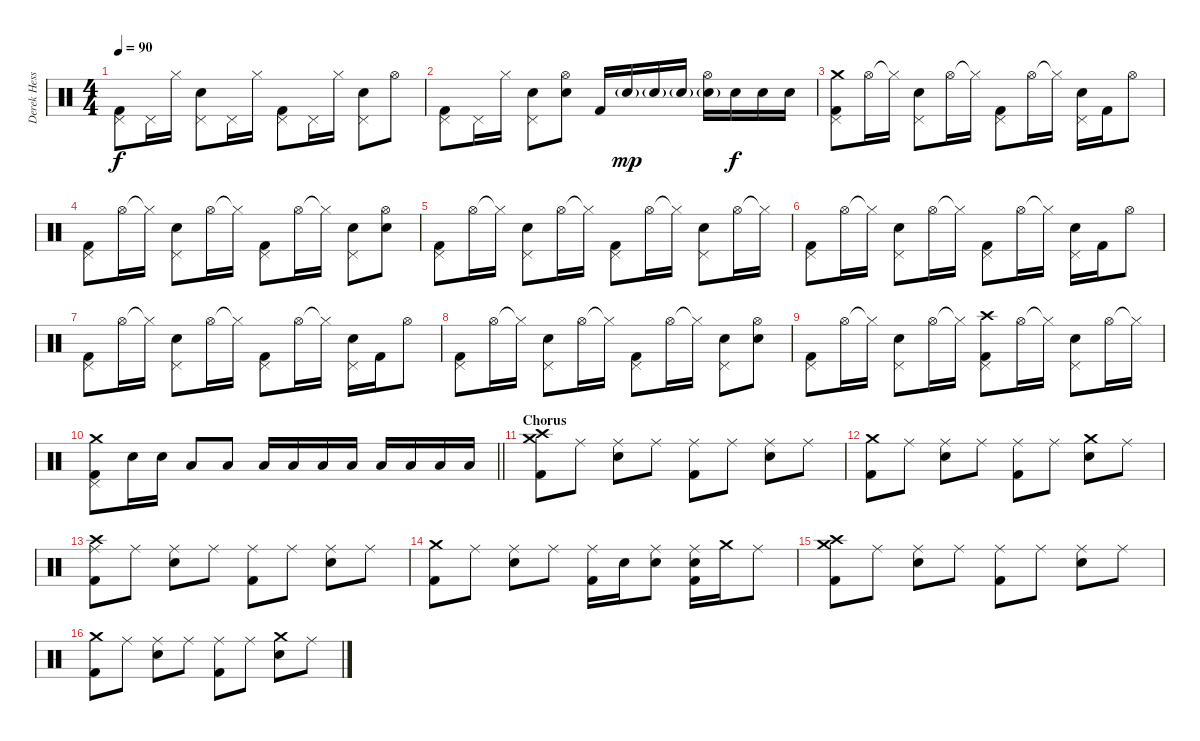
\track ("Derek Hess (Drums and Percussion)" "Derek Hess") {instrument percussion}
\staff {score}
\articulation defaults
\ts (4 4)
\tempo 90
\clef neutral
\ks c
("Pedal Hi-Hat (hit)" "Kick (hit) 2").8{dy f} "Pedal Hi-Hat (hit)".16 "Hi-Hat (closed)".16 ("Snare (hit) 2" "Pedal Hi-Hat (hit)").8 "Pedal Hi-Hat (hit)".16 "Hi-Hat (closed)".16 ("Pedal Hi-Hat (hit)" "Kick (hit) 2").8 "Pedal Hi-Hat (hit)".16 "Hi-Hat (closed)".16 ("Snare (hit) 2" "Pedal Hi-Hat (hit)").8 "Hi-Hat (open)".8 |
("Pedal Hi-Hat (hit)" "Kick (hit) 2").8 "Pedal Hi-Hat (hit)".16 "Hi-Hat (closed)".16 ("Snare (hit) 2" "Pedal Hi-Hat (hit)").8 ("Snare (hit) 2" "Hi-Hat (open)").8 "Kick (hit) 2".16 "Snare (hit) 2"{g}.16{dy mp} "Snare (hit) 2"{g}.16 "Snare (hit) 2"{g}.16 ("Snare (hit) 2"{g} "Hi-Hat (open)").16 "Snare (hit) 2".16{dy f} "Snare (hit) 2".16 "Snare (hit) 2".16 |
("Crash medium (hit)" "Pedal Hi-Hat (hit)" "Kick (hit) 2").8 "Hi-Hat (open)".16 "Hi-Hat (closed)"{t}.16 ("Snare (hit) 2" "Pedal Hi-Hat (hit)").8 "Hi-Hat (open)".16 "Hi-Hat (closed)"{t}.16 ("Pedal Hi-Hat (hit)" "Kick (hit) 2").8 "Hi-Hat (open)".16 "Hi-Hat (closed)"{t}.16 ("Snare (hit) 2" "Pedal Hi-Hat (hit)").16 "Kick (hit) 2".16 "Hi-Hat (open)".8 |
("Pedal Hi-Hat (hit)" "Kick (hit) 2").8 "Hi-Hat (open)".16 "Hi-Hat (closed)"{t}.16 ("Snare (hit) 2" "Pedal Hi-Hat (hit)").8 "Hi-Hat (open)".16 "Hi-Hat (closed)"{t}.16 ("Pedal Hi-Hat (hit)" "Kick (hit) 2").8 "Hi-Hat (open)".16 "Hi-Hat (closed)"{t}.16 ("Snare (hit) 2" "Pedal Hi-Hat (hit)").8 ("Snare (hit) 2" "Hi-Hat (open)").8 |
("Pedal Hi-Hat (hit)" "Kick (hit) 2").8 "Hi-Hat (open)".16 "Hi-Hat (closed)"{t}.16 ("Snare (hit) 2" "Pedal Hi-Hat (hit)").8 "Hi-Hat (open)".16 "Hi-Hat (closed)"{t}.16 ("Pedal Hi-Hat (hit)" "Kick (hit) 2").8 "Hi-Hat (open)".16 "Hi-Hat (closed)"{t}.16 ("Snare (hit) 2" "Pedal Hi-Hat (hit)").8 "Hi-Hat (open)".16 "Hi-Hat (closed)"{t}.16 |
("Pedal Hi-Hat (hit)" "Kick (hit) 2").8 "Hi-Hat (open)".16 "Hi-Hat (closed)"{t}.16 ("Snare (hit) 2" "Pedal Hi-Hat (hit)").8 "Hi-Hat (open)".16 "Hi-Hat (closed)"{t}.16 ("Pedal Hi-Hat (hit)" "Kick (hit) 2").8 "Hi-Hat (open)".16 "Hi-Hat (closed)"{t}.16 ("Snare (hit) 2" "Pedal Hi-Hat (hit)").16 "Kick (hit) 2".16 "Hi-Hat (open)".8 |
("Pedal Hi-Hat (hit)" "Kick (hit) 2").8 "Hi-Hat (open)".16 "Hi-Hat (closed)"{t}.16 ("Snare (hit) 2" "Pedal Hi-Hat (hit)").8 "Hi-Hat (open)".16 "Hi-Hat (closed)"{t}.16 ("Pedal Hi-Hat (hit)" "Kick (hit) 2").8 "Hi-Hat (open)".16 "Hi-Hat (closed)"{t}.16 ("Snare (hit) 2" "Pedal Hi-Hat (hit)").16 "Kick (hit) 2".16 "Hi-Hat (open)".8 |
("Pedal Hi-Hat (hit)" "Kick (hit) 2").8 "Hi-Hat (open)".16 "Hi-Hat (closed)"{t}.16 ("Snare (hit) 2" "Pedal Hi-Hat (hit)").8 "Hi-Hat (open)".16 "Hi-Hat (closed)"{t}.16 ("Pedal Hi-Hat (hit)" "Kick (hit) 2").8 "Hi-Hat (open)".16 "Hi-Hat (closed)"{t}.16 ("Snare (hit) 2" "Pedal Hi-Hat (hit)").8 ("Snare (hit) 2" "Hi-Hat (open)").8 |
("Pedal Hi-Hat (hit)" "Kick (hit) 2").8 "Hi-Hat (open)".16 "Hi-Hat (closed)"{t}.16 ("Snare (hit) 2" "Pedal Hi-Hat (hit)").8 "Hi-Hat (open)".16 "Hi-Hat (closed)"{t}.16 ("Crash high (hit)" "Pedal Hi-Hat (hit)" "Kick (hit) 2").8 "Hi-Hat (open)".16 "Hi-Hat (closed)"{t}.16 ("Snare (hit) 2" "Pedal Hi-Hat (hit)").8 "Hi-Hat (open)".16 "Hi-Hat (closed)"{t}.16 |
\barLineRight lightlight
("Crash medium (hit)" "Pedal Hi-Hat (hit)" "Kick (hit) 2").8 "Snare (hit) 2".16 "Snare (hit) 2".16 "Low Tom (hit)".8 "Low Floor Tom (hit)".8 "Low Tom (hit)".16 "Low Tom (hit)".16 "Low Tom (hit)".16 "Low Tom (hit)".16 "Low Floor Tom (hit)".16 "Low Floor Tom (hit)".16 "Low Floor Tom (hit)".16 "Low Floor Tom (hit)".16 |
\section ("" "Chorus")
("Crash medium (hit)" "Crash high (hit)" "Kick (hit) 2").8 "Ride (middle)".8 ("Ride (middle)" "Snare (hit) 2").8 "Ride (middle)".8 ("Ride (middle)" "Kick (hit) 2").8 "Ride (middle)".8 ("Ride (middle)" "Snare (hit) 2").8 "Ride (middle)".8 |
("Crash medium (hit)" "Kick (hit) 2").8 "Ride (middle)".8 ("Ride (middle)" "Snare (hit) 2").8 "Ride (middle)".8 ("Ride (middle)" "Kick (hit) 2").8 "Ride (middle)".8 ("Crash medium (hit)" "Snare (hit) 2").8 "Ride (middle)".8 |
("Crash high (hit)" "Ride (middle)" "Kick (hit) 2").8 "Ride (middle)".8 ("Ride (middle)" "Snare (hit) 2").8 "Ride (middle)".8 ("Ride (middle)" "Kick (hit) 2").8 "Ride (middle)".8 ("Ride (middle)" "Snare (hit) 2").8 "Ride (middle)".8 |
("Crash medium (hit)" "Kick (hit) 2").8 "Ride (middle)".8 ("Ride (middle)" "Snare (hit) 2").8 "Ride (middle)".8 ("Ride (middle)" "Kick (hit) 2").16 "Snare (hit) 2".16 ("Ride (middle)" "Snare (hit) 2").8 ("Ride (middle)" "Snare (hit) 2" "Kick (hit) 2").16 "Crash medium (hit)".16 "Ride (middle)".8 |
("Crash medium (hit)" "Crash high (hit)" "Kick (hit) 2").8 "Ride (middle)".8 ("Ride (middle)" "Snare (hit) 2").8 "Ride (middle)".8 ("Ride (middle)" "Kick (hit) 2").8 "Ride (middle)".8 ("Ride (middle)" "Snare (hit) 2").8 "Ride (middle)".8 |
("Crash medium (hit)" "Kick (hit) 2").8 "Ride (middle)".8 ("Ride (middle)" "Snare (hit) 2").8 "Ride (middle)".8 ("Ride (middle)" "Kick (hit) 2").8 "Ride (middle)".8 ("Crash medium (hit)" "Snare (hit) 2").8 "Ride (middle)".8
